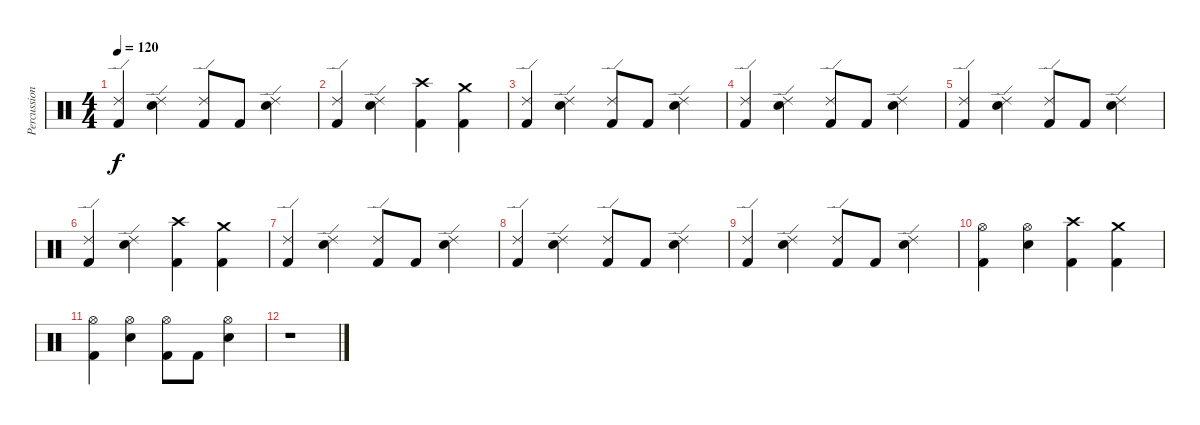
\track ("Percussion" "Percussion") {instrument percussion}
\staff {score}
\articulation defaults
\ts (4 4)
\tempo 120
\clef neutral
\ks c
("Ride (edge) 2" "Kick (hit) 2").4{dy f} ("Ride (edge) 2" "Snare (hit) 2").4 ("Ride (edge) 2" "Kick (hit) 2").8 "Kick (hit) 2".8 ("Ride (edge) 2" "Snare (hit) 2").4 |
("Ride (edge) 2" "Kick (hit) 2").4 ("Ride (edge) 2" "Snare (hit) 2").4 ("Crash high (hit)" "Kick (hit) 2").4 ("Crash medium (hit)" "Kick (hit) 2").4 |
("Ride (edge) 2" "Kick (hit) 2").4 ("Ride (edge) 2" "Snare (hit) 2").4 ("Ride (edge) 2" "Kick (hit) 2").8 "Kick (hit) 2".8 ("Ride (edge) 2" "Snare (hit) 2").4 |
("Ride (edge) 2" "Kick (hit) 2").4{volume 9} ("Ride (edge) 2" "Snare (hit) 2").4 ("Ride (edge) 2" "Kick (hit) 2").8 "Kick (hit) 2".8 ("Ride (edge) 2" "Snare (hit) 2").4 |
("Ride (edge) 2" "Kick (hit) 2").4{volume 7} ("Ride (edge) 2" "Snare (hit) 2").4 ("Ride (edge) 2" "Kick (hit) 2").8 "Kick (hit) 2".8 ("Ride (edge) 2" "Snare (hit) 2").4 |
("Ride (edge) 2" "Kick (hit) 2").4{volume 6} ("Ride (edge) 2" "Snare (hit) 2").4 ("Crash high (hit)" "Kick (hit) 2").4 ("Crash medium (hit)" "Kick (hit) 2").4 |
("Ride (edge) 2" "Kick (hit) 2").4{volume 5} ("Ride (edge) 2" "Snare (hit) 2").4 ("Ride (edge) 2" "Kick (hit) 2").8 "Kick (hit) 2".8 ("Ride (edge) 2" "Snare (hit) 2").4 |
("Ride (edge) 2" "Kick (hit) 2").4{volume 4} ("Ride (edge) 2" "Snare (hit) 2").4 ("Ride (edge) 2" "Kick (hit) 2").8 "Kick (hit) 2".8 ("Ride (edge) 2" "Snare (hit) 2").4 |
("Ride (edge) 2" "Kick (hit) 2").4{volume 3} ("Ride (edge) 2" "Snare (hit) 2").4 ("Ride (edge) 2" "Kick (hit) 2").8 "Kick (hit) 2".8 ("Ride (edge) 2" "Snare (hit) 2").4 |
("Hi-Hat (open)" "Kick (hit) 2").4{volume 2} ("Hi-Hat (open)" "Snare (hit) 2").4 ("Crash high (hit)" "Kick (hit) 2").4 ("Crash medium (hit)" "Kick (hit) 2").4 |
("Hi-Hat (open)" "Kick (hit) 2").4{volume 1} ("Hi-Hat (open)" "Snare (hit) 2").4 ("Hi-Hat (open)" "Kick (hit) 2").8 "Kick (hit) 2".8 ("Hi-Hat (open)" "Snare (hit) 2").4 |
r.1
